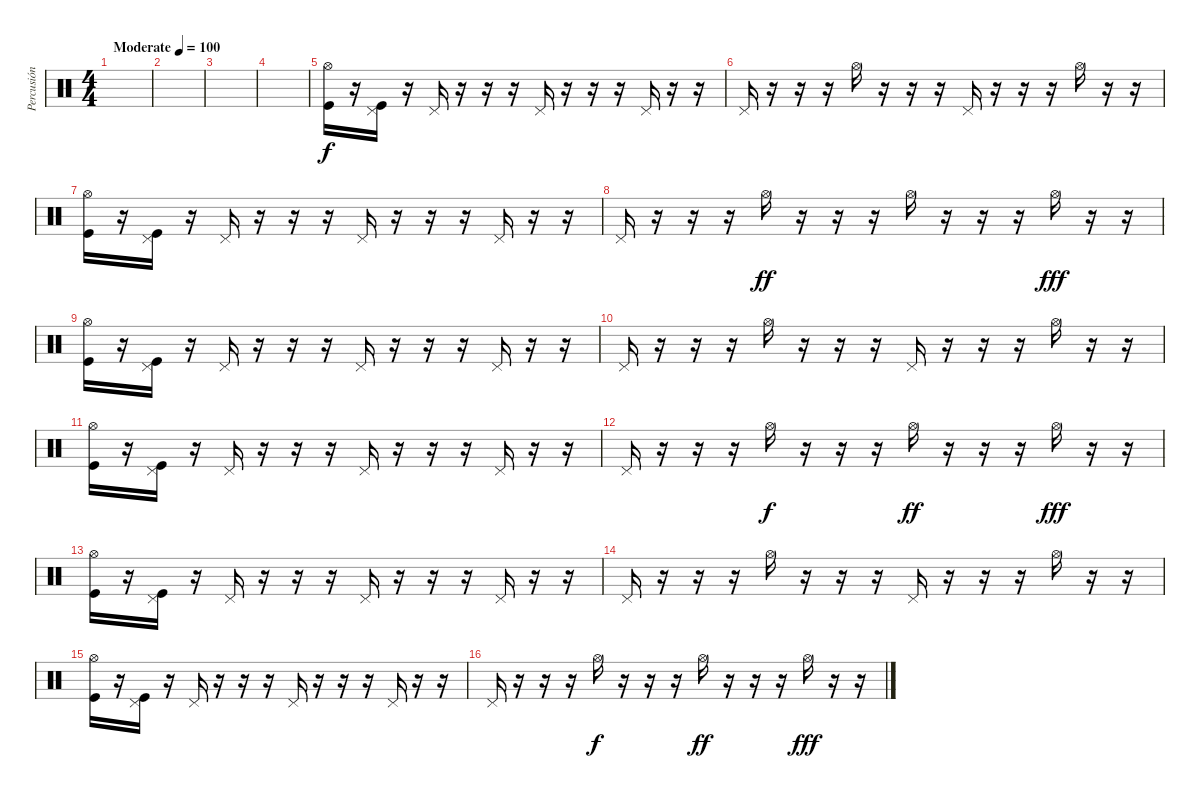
\track ("Percusión" "Percusión") {instrument percussion}
\staff {score}
\articulation defaults
\ts (4 4)
\tempo (100 "Moderate")
\tempo 150
\tempo (100 "Moderate")
\clef neutral
\ks c
|
|
|
|
("Hi-Hat (open)" "Kick (hit)").16 r.16 ("Pedal Hi-Hat (hit)" "Kick (hit)").16 r.16 "Pedal Hi-Hat (hit)".16 r.16 r.16 r.16 "Pedal Hi-Hat (hit)".16 r.16 r.16 r.16 "Pedal Hi-Hat (hit)".16 r.16 r.16 |
"Pedal Hi-Hat (hit)".16 r.16 r.16 r.16 "Hi-Hat (open)".16 r.16 r.16 r.16 "Pedal Hi-Hat (hit)".16 r.16 r.16 r.16 "Hi-Hat (open)".16 r.16 r.16 |
("Hi-Hat (open)" "Kick (hit)").16 r.16 ("Pedal Hi-Hat (hit)" "Kick (hit)").16 r.16 "Pedal Hi-Hat (hit)".16 r.16 r.16 r.16 "Pedal Hi-Hat (hit)".16 r.16 r.16 r.16 "Pedal Hi-Hat (hit)".16 r.16 r.16 |
"Pedal Hi-Hat (hit)".16 r.16 r.16 r.16 "Hi-Hat (open)".16{dy ff} r.16 r.16 r.16 "Hi-Hat (open)".16 r.16 r.16 r.16 "Hi-Hat (open)".16{dy fff} r.16 r.16 |
("Hi-Hat (open)" "Kick (hit)").16 r.16 ("Pedal Hi-Hat (hit)" "Kick (hit)").16 r.16 "Pedal Hi-Hat (hit)".16 r.16 r.16 r.16 "Pedal Hi-Hat (hit)".16 r.16 r.16 r.16 "Pedal Hi-Hat (hit)".16 r.16 r.16 |
"Pedal Hi-Hat (hit)".16 r.16 r.16 r.16 "Hi-Hat (open)".16 r.16 r.16 r.16 "Pedal Hi-Hat (hit)".16 r.16 r.16 r.16 "Hi-Hat (open)".16 r.16 r.16 |
("Hi-Hat (open)" "Kick (hit)").16 r.16 ("Pedal Hi-Hat (hit)" "Kick (hit)").16 r.16 "Pedal Hi-Hat (hit)".16 r.16 r.16 r.16 "Pedal Hi-Hat (hit)".16 r.16 r.16 r.16 "Pedal Hi-Hat (hit)".16 r.16 r.16 |
"Pedal Hi-Hat (hit)".16 r.16 r.16 r.16 "Hi-Hat (open)".16{dy f} r.16 r.16 r.16 "Hi-Hat (open)".16{dy ff} r.16 r.16 r.16 "Hi-Hat (open)".16{dy fff} r.16 r.16 |
("Hi-Hat (open)" "Kick (hit)").16 r.16 ("Pedal Hi-Hat (hit)" "Kick (hit)").16 r.16 "Pedal Hi-Hat (hit)".16 r.16 r.16 r.16 "Pedal Hi-Hat (hit)".16 r.16 r.16 r.16 "Pedal Hi-Hat (hit)".16 r.16 r.16 |
"Pedal Hi-Hat (hit)".16 r.16 r.16 r.16 "Hi-Hat (open)".16 r.16 r.16 r.16 "Pedal Hi-Hat (hit)".16 r.16 r.16 r.16 "Hi-Hat (open)".16 r.16 r.16 |
("Hi-Hat (open)" "Kick (hit)").16 r.16 ("Pedal Hi-Hat (hit)" "Kick (hit)").16 r.16 "Pedal Hi-Hat (hit)".16 r.16 r.16 r.16 "Pedal Hi-Hat (hit)".16 r.16 r.16 r.16 "Pedal Hi-Hat (hit)".16 r.16 r.16 |
"Pedal Hi-Hat (hit)".16 r.16 r.16 r.16 "Hi-Hat (open)".16{dy f} r.16 r.16 r.16 "Hi-Hat (open)".16{dy ff} r.16 r.16 r.16 "Hi-Hat (open)".16{dy fff} r.16 r.16
